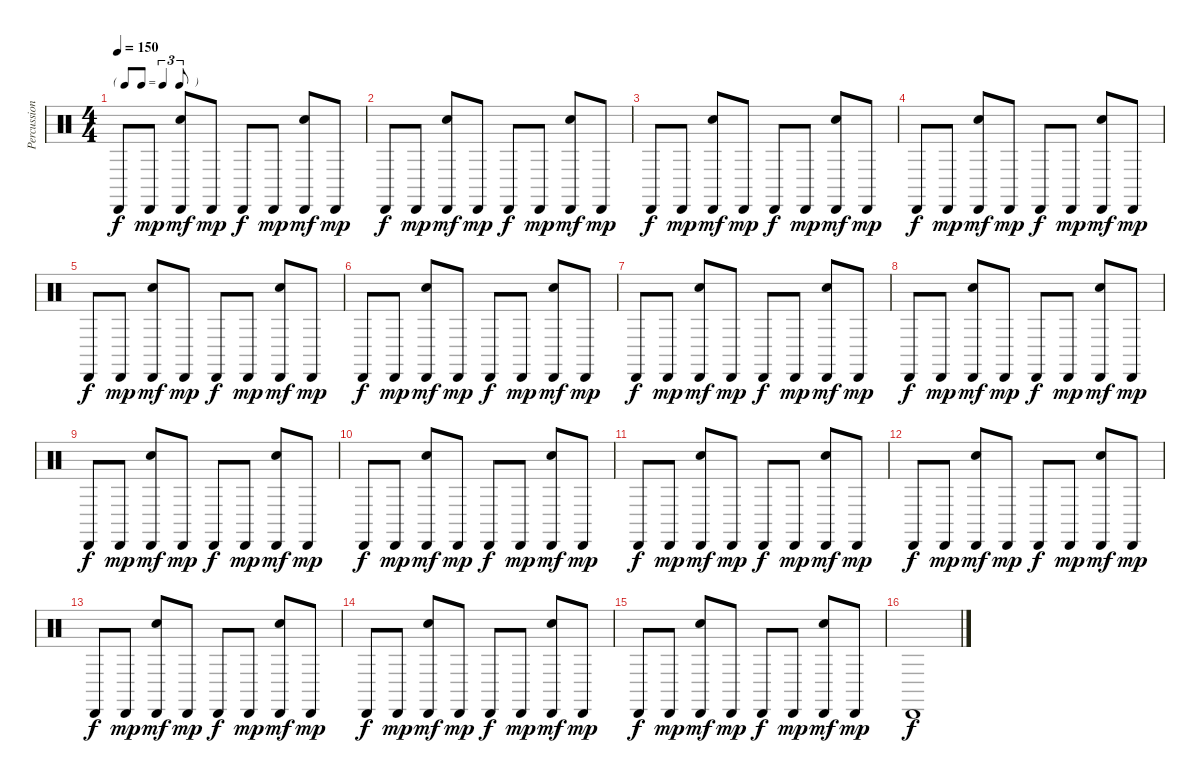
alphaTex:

\track ("Percussion" "Percussion") {instrument percussion}
\staff {score}
\articulation defaults
\ts (4 4)
\tf triplet8th
\tempo 150
\clef neutral
\ks c "Cabasa (hit)".8{dy f} "Cabasa (hit)".8{dy mp}
("Cabasa (hit)" "Hand Clap (hit)").8{dy mf} "Cabasa (hit)".8{dy mp} "Cabasa (hit)".8{dy f} "Cabasa (hit)".8{dy mp} ("Cabasa (hit)" "Hand Clap (hit)").8{dy mf} "Cabasa (hit)".8{dy mp} |
"Cabasa (hit)".8{dy f} "Cabasa (hit)".8{dy mp} ("Cabasa (hit)" "Hand Clap (hit)").8{dy mf} "Cabasa (hit)".8{dy mp} "Cabasa (hit)".8{dy f} "Cabasa (hit)".8{dy mp} ("Cabasa (hit)" "Hand Clap (hit)").8{dy mf} "Cabasa (hit)".8{dy mp} |
"Cabasa (hit)".8{dy f} "Cabasa (hit)".8{dy mp} ("Cabasa (hit)" "Hand Clap (hit)").8{dy mf} "Cabasa (hit)".8{dy mp} "Cabasa (hit)".8{dy f} "Cabasa (hit)".8{dy mp} ("Cabasa (hit)" "Hand Clap (hit)").8{dy mf} "Cabasa (hit)".8{dy mp} |
"Cabasa (hit)".8{dy f} "Cabasa (hit)".8{dy mp} ("Cabasa (hit)" "Hand Clap (hit)").8{dy mf} "Cabasa (hit)".8{dy mp} "Cabasa (hit)".8{dy f} "Cabasa (hit)".8{dy mp} ("Cabasa (hit)" "Hand Clap (hit)").8{dy mf} "Cabasa (hit)".8{dy mp} |
"Cabasa (hit)".8{dy f} "Cabasa (hit)".8{dy mp} ("Cabasa (hit)" "Hand Clap (hit)").8{dy mf} "Cabasa (hit)".8{dy mp} "Cabasa (hit)".8{dy f} "Cabasa (hit)".8{dy mp} ("Cabasa (hit)" "Hand Clap (hit)").8{dy mf} "Cabasa (hit)".8{dy mp} |
"Cabasa (hit)".8{dy f} "Cabasa (hit)".8{dy mp} ("Cabasa (hit)" "Hand Clap (hit)").8{dy mf} "Cabasa (hit)".8{dy mp} "Cabasa (hit)".8{dy f} "Cabasa (hit)".8{dy mp} ("Cabasa (hit)" "Hand Clap (hit)").8{dy mf} "Cabasa (hit)".8{dy mp} |
"Cabasa (hit)".8{dy f} "Cabasa (hit)".8{dy mp} ("Cabasa (hit)" "Hand Clap (hit)").8{dy mf} "Cabasa (hit)".8{dy mp} "Cabasa (hit)".8{dy f} "Cabasa (hit)".8{dy mp} ("Cabasa (hit)" "Hand Clap (hit)").8{dy mf} "Cabasa (hit)".8{dy mp} |
"Cabasa (hit)".8{dy f} "Cabasa (hit)".8{dy mp} ("Cabasa (hit)" "Hand Clap (hit)").8{dy mf} "Cabasa (hit)".8{dy mp} "Cabasa (hit)".8{dy f} "Cabasa (hit)".8{dy mp} ("Cabasa (hit)" "Hand Clap (hit)").8{dy mf} "Cabasa (hit)".8{dy mp} |
"Cabasa (hit)".8{dy f} "Cabasa (hit)".8{dy mp} ("Cabasa (hit)" "Hand Clap (hit)").8{dy mf} "Cabasa (hit)".8{dy mp} "Cabasa (hit)".8{dy f} "Cabasa (hit)".8{dy mp} ("Cabasa (hit)" "Hand Clap (hit)").8{dy mf} "Cabasa (hit)".8{dy mp} |
"Cabasa (hit)".8{dy f} "Cabasa (hit)".8{dy mp} ("Cabasa (hit)" "Hand Clap (hit)").8{dy mf} "Cabasa (hit)".8{dy mp} "Cabasa (hit)".8{dy f} "Cabasa (hit)".8{dy mp} ("Cabasa (hit)" "Hand Clap (hit)").8{dy mf} "Cabasa (hit)".8{dy mp} |
"Cabasa (hit)".8{dy f} "Cabasa (hit)".8{dy mp} ("Cabasa (hit)" "Hand Clap (hit)").8{dy mf} "Cabasa (hit)".8{dy mp} "Cabasa (hit)".8{dy f} "Cabasa (hit)".8{dy mp} ("Cabasa (hit)" "Hand Clap (hit)").8{dy mf} "Cabasa (hit)".8{dy mp} |
"Cabasa (hit)".8{dy f} "Cabasa (hit)".8{dy mp} ("Cabasa (hit)" "Hand Clap (hit)").8{dy mf} "Cabasa (hit)".8{dy mp} "Cabasa (hit)".8{dy f} "Cabasa (hit)".8{dy mp} ("Cabasa (hit)" "Hand Clap (hit)").8{dy mf} "Cabasa (hit)".8{dy mp} |
"Cabasa (hit)".8{dy f} "Cabasa (hit)".8{dy mp} ("Cabasa (hit)" "Hand Clap (hit)").8{dy mf} "Cabasa (hit)".8{dy mp} "Cabasa (hit)".8{dy f} "Cabasa (hit)".8{dy mp} ("Cabasa (hit)" "Hand Clap (hit)").8{dy mf} "Cabasa (hit)".8{dy mp} |
"Cabasa (hit)".8{dy f} "Cabasa (hit)".8{dy mp} ("Cabasa (hit)" "Hand Clap (hit)").8{dy mf} "Cabasa (hit)".8{dy mp} "Cabasa (hit)".8{dy f} "Cabasa (hit)".8{dy mp} ("Cabasa (hit)" "Hand Clap (hit)").8{dy mf} "Cabasa (hit)".8{dy mp} |
"Cabasa (hit)".8{dy f} "Cabasa (hit)".8{dy mp} ("Cabasa (hit)" "Hand Clap (hit)").8{dy mf} "Cabasa (hit)".8{dy mp} "Cabasa (hit)".8{dy f} "Cabasa (hit)".8{dy mp} ("Cabasa (hit)" "Hand Clap (hit)").8{dy mf} "Cabasa (hit)".8{dy mp} |
"Cabasa (hit)".1{dy f}
